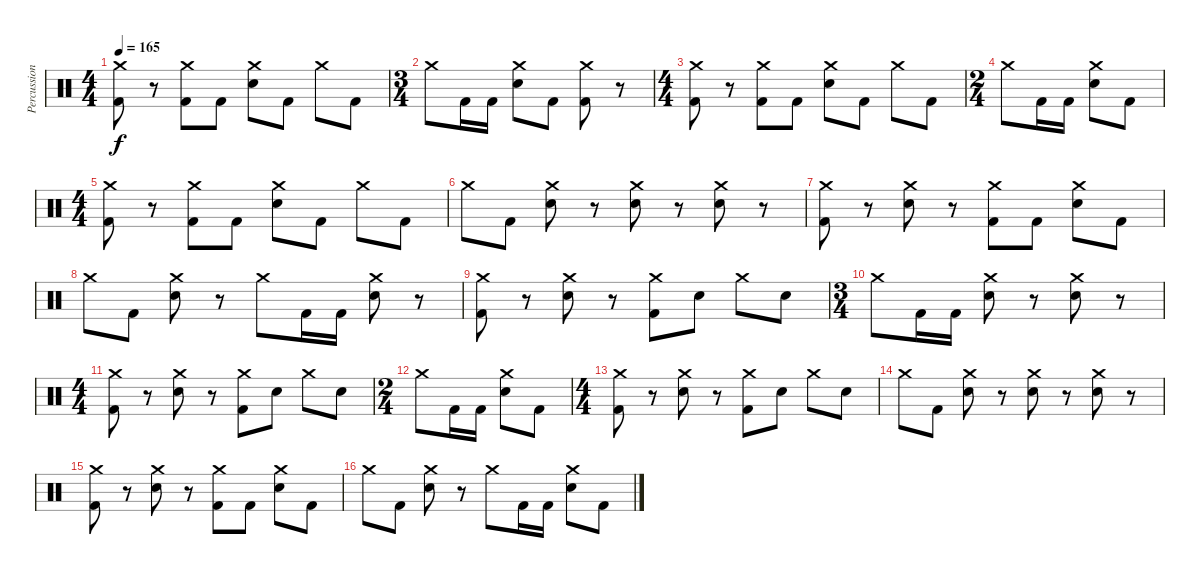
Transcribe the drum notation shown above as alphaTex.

\track ("Percussion" "Percussion") {instrument percussion}
\staff {score}
\articulation defaults
\ts (4 4)
\tempo 165
\clef neutral
\ks c
("Crash medium (hit)" "Kick (hit) 2").8{dy f} r.8 ("Crash medium (hit)" "Kick (hit) 2").8 "Kick (hit) 2".8 ("Crash medium (hit)" "Electric Snare (hit)").8 "Kick (hit) 2".8 "Crash medium (hit)".8 "Kick (hit) 2".8 |
\ts (3 4)
"Crash medium (hit)".8 "Kick (hit) 2".16 "Kick (hit) 2".16 ("Crash medium (hit)" "Electric Snare (hit)").8 "Kick (hit) 2".8 ("Crash medium (hit)" "Kick (hit) 2").8 r.8 |
\ts (4 4)
("Crash medium (hit)" "Kick (hit) 2").8 r.8 ("Crash medium (hit)" "Kick (hit) 2").8 "Kick (hit) 2".8 ("Crash medium (hit)" "Electric Snare (hit)").8 "Kick (hit) 2".8 "Crash medium (hit)".8 "Kick (hit) 2".8 |
\ts (2 4)
"Crash medium (hit)".8 "Kick (hit) 2".16 "Kick (hit) 2".16 ("Crash medium (hit)" "Electric Snare (hit)").8 "Kick (hit) 2".8 |
\ts (4 4)
("Crash medium (hit)" "Kick (hit) 2").8 r.8 ("Crash medium (hit)" "Kick (hit) 2").8 "Kick (hit) 2".8 ("Crash medium (hit)" "Electric Snare (hit)").8 "Kick (hit) 2".8 "Crash medium (hit)".8 "Kick (hit) 2".8 |
"Crash medium (hit)".8 "Kick (hit) 2".8 ("Crash medium (hit)" "Electric Snare (hit)").8 r.8 ("Crash medium (hit)" "Electric Snare (hit)").8 r.8 ("Crash medium (hit)" "Electric Snare (hit)").8 r.8 |
("Crash medium (hit)" "Kick (hit) 2").8 r.8 ("Crash medium (hit)" "Electric Snare (hit)").8 r.8 ("Crash medium (hit)" "Kick (hit) 2").8 "Kick (hit) 2".8 ("Crash medium (hit)" "Electric Snare (hit)").8 "Kick (hit) 2".8 |
"Crash medium (hit)".8 "Kick (hit) 2".8 ("Crash medium (hit)" "Electric Snare (hit)").8 r.8 "Crash medium (hit)".8 "Kick (hit) 2".16 "Kick (hit) 2".16 ("Crash medium (hit)" "Electric Snare (hit)").8 r.8 |
("Crash medium (hit)" "Kick (hit) 2").8 r.8 ("Crash medium (hit)" "Electric Snare (hit)").8 r.8 ("Crash medium (hit)" "Kick (hit) 2").8 "Electric Snare (hit)".8 "Crash medium (hit)".8 "Electric Snare (hit)".8 |
\ts (3 4)
"Crash medium (hit)".8 "Kick (hit) 2".16 "Kick (hit) 2".16 ("Crash medium (hit)" "Electric Snare (hit)").8 r.8 ("Crash medium (hit)" "Electric Snare (hit)").8 r.8 |
\ts (4 4)
("Crash medium (hit)" "Kick (hit) 2").8 r.8 ("Crash medium (hit)" "Electric Snare (hit)").8 r.8 ("Crash medium (hit)" "Kick (hit) 2").8 "Electric Snare (hit)".8 "Crash medium (hit)".8 "Electric Snare (hit)".8 |
\ts (2 4)
"Crash medium (hit)".8 "Kick (hit) 2".16 "Kick (hit) 2".16 ("Crash medium (hit)" "Electric Snare (hit)").8 "Kick (hit) 2".8 |
\ts (4 4)
("Crash medium (hit)" "Kick (hit) 2").8 r.8 ("Crash medium (hit)" "Electric Snare (hit)").8 r.8 ("Crash medium (hit)" "Kick (hit) 2").8 "Electric Snare (hit)".8 "Crash medium (hit)".8 "Electric Snare (hit)".8 |
"Crash medium (hit)".8 "Kick (hit) 2".8 ("Crash medium (hit)" "Electric Snare (hit)").8 r.8 ("Crash medium (hit)" "Electric Snare (hit)").8 r.8 ("Crash medium (hit)" "Electric Snare (hit)").8 r.8 |
("Crash medium (hit)" "Kick (hit) 2").8 r.8 ("Crash medium (hit)" "Electric Snare (hit)").8 r.8 ("Crash medium (hit)" "Kick (hit) 2").8 "Kick (hit) 2".8 ("Crash medium (hit)" "Electric Snare (hit)").8 "Kick (hit) 2".8 |
"Crash medium (hit)".8 "Kick (hit) 2".8 ("Crash medium (hit)" "Electric Snare (hit)").8 r.8 "Crash medium (hit)".8 "Kick (hit) 2".16 "Kick (hit) 2".16 ("Crash medium (hit)" "Electric Snare (hit)").8 "Kick (hit) 2".8
